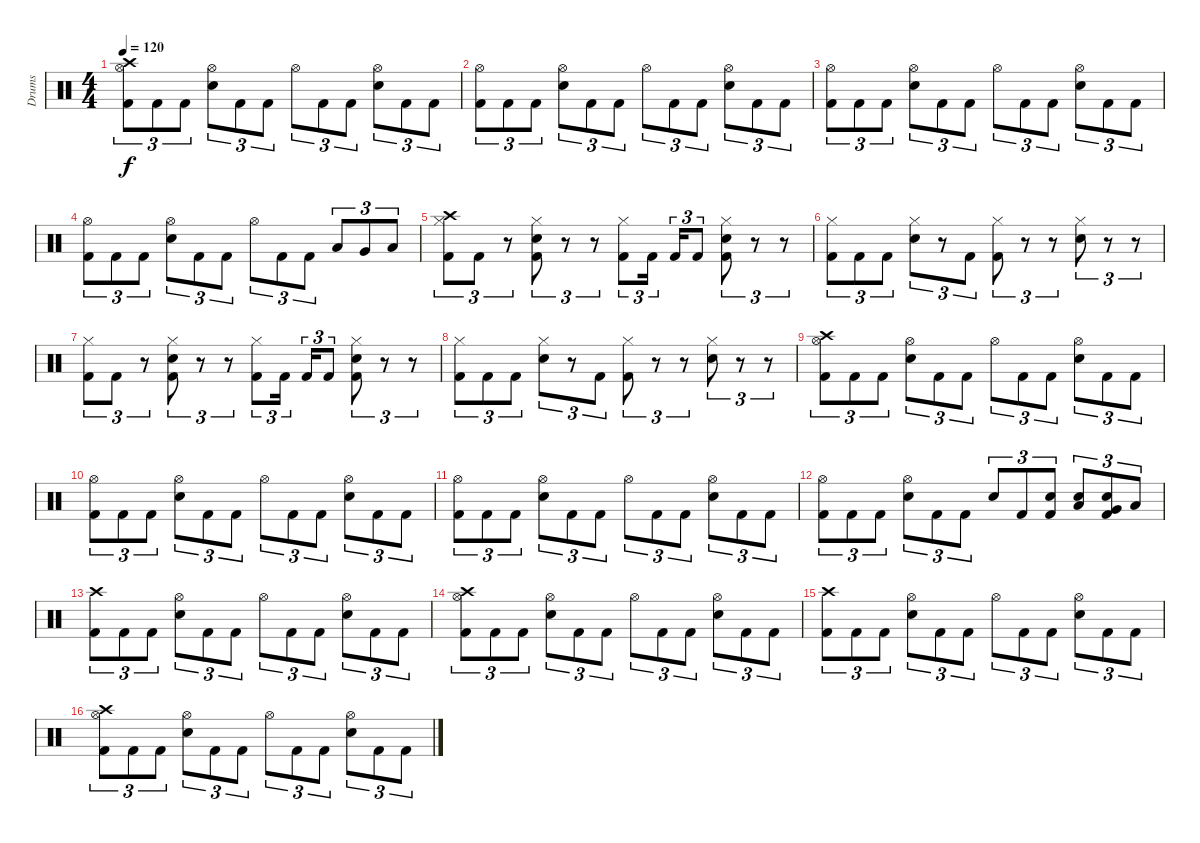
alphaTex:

\track ("Drums" "Drums") {instrument percussion}
\staff {score}
\articulation defaults
\ts (4 4)
\tempo 120
\clef neutral
\ks c
("Kick (hit) 2" "Hi-Hat (open)" "Crash high (hit)").8{tu (3 2) dy f} "Kick (hit) 2".8{tu (3 2)} "Kick (hit) 2".8{tu (3 2)} ("Snare (hit) 2" "Hi-Hat (open)").8{tu (3 2)} "Kick (hit) 2".8{tu (3 2)} "Kick (hit) 2".8{tu (3 2)} "Hi-Hat (open)".8{tu (3 2)} "Kick (hit) 2".8{tu (3 2)} "Kick (hit) 2".8{tu (3 2)} ("Snare (hit) 2" "Hi-Hat (open)").8{tu (3 2)} "Kick (hit) 2".8{tu (3 2)} "Kick (hit) 2".8{tu (3 2)} |
("Kick (hit) 2" "Hi-Hat (open)").8{tu (3 2)} "Kick (hit) 2".8{tu (3 2)} "Kick (hit) 2".8{tu (3 2)} ("Snare (hit) 2" "Hi-Hat (open)").8{tu (3 2)} "Kick (hit) 2".8{tu (3 2)} "Kick (hit) 2".8{tu (3 2)} "Hi-Hat (open)".8{tu (3 2)} "Kick (hit) 2".8{tu (3 2)} "Kick (hit) 2".8{tu (3 2)} ("Snare (hit) 2" "Hi-Hat (open)").8{tu (3 2)} "Kick (hit) 2".8{tu (3 2)} "Kick (hit) 2".8{tu (3 2)} |
("Kick (hit) 2" "Hi-Hat (open)").8{tu (3 2)} "Kick (hit) 2".8{tu (3 2)} "Kick (hit) 2".8{tu (3 2)} ("Snare (hit) 2" "Hi-Hat (open)").8{tu (3 2)} "Kick (hit) 2".8{tu (3 2)} "Kick (hit) 2".8{tu (3 2)} "Hi-Hat (open)".8{tu (3 2)} "Kick (hit) 2".8{tu (3 2)} "Kick (hit) 2".8{tu (3 2)} ("Snare (hit) 2" "Hi-Hat (open)").8{tu (3 2)} "Kick (hit) 2".8{tu (3 2)} "Kick (hit) 2".8{tu (3 2)} |
("Kick (hit) 2" "Hi-Hat (open)").8{tu (3 2)} "Kick (hit) 2".8{tu (3 2)} "Kick (hit) 2".8{tu (3 2)} ("Snare (hit) 2" "Hi-Hat (open)").8{tu (3 2)} "Kick (hit) 2".8{tu (3 2)} "Kick (hit) 2".8{tu (3 2)} "Hi-Hat (open)".8{tu (3 2)} "Kick (hit) 2".8{tu (3 2)} "Kick (hit) 2".8{tu (3 2)} "Low Tom (hit)".8{tu (3 2)} "Very Low Tom (hit)".8{tu (3 2)} "Low Floor Tom (hit)".8{tu (3 2)} |
("Kick (hit) 2" "Hi-Hat (closed)" "Crash high (hit)").8{tu (3 2)} "Kick (hit) 2".8{tu (3 2)} r.8{tu (3 2)} ("Kick (hit) 2" "Snare (hit) 2" "Hi-Hat (closed)").8{tu (3 2)} r.8{tu (3 2)} r.8{tu (3 2)} ("Kick (hit) 2" "Hi-Hat (closed)").8{tu (3 2)} "Kick (hit) 2".16{tu (3 2) beam splitsecondary} "Kick (hit) 2".16{tu (3 2)} "Kick (hit) 2".8{tu (3 2)} ("Kick (hit) 2" "Snare (hit) 2" "Hi-Hat (closed)").8{tu (3 2)} r.8{tu (3 2)} r.8{tu (3 2)} |
("Kick (hit) 2" "Hi-Hat (closed)").8{tu (3 2)} "Kick (hit) 2".8{tu (3 2)} "Kick (hit) 2".8{tu (3 2)} ("Snare (hit) 2" "Hi-Hat (closed)").8{tu (3 2)} r.8{tu (3 2)} "Kick (hit) 2".8{tu (3 2)} ("Kick (hit) 2" "Hi-Hat (closed)").8{tu (3 2)} r.8{tu (3 2)} r.8{tu (3 2)} ("Snare (hit) 2" "Hi-Hat (closed)").8{tu (3 2)} r.8{tu (3 2)} r.8{tu (3 2)} |
("Kick (hit) 2" "Hi-Hat (closed)").8{tu (3 2)} "Kick (hit) 2".8{tu (3 2)} r.8{tu (3 2)} ("Kick (hit) 2" "Snare (hit) 2" "Hi-Hat (closed)").8{tu (3 2)} r.8{tu (3 2)} r.8{tu (3 2)} ("Kick (hit) 2" "Hi-Hat (closed)").8{tu (3 2)} "Kick (hit) 2".16{tu (3 2) beam splitsecondary} "Kick (hit) 2".16{tu (3 2)} "Kick (hit) 2".8{tu (3 2)} ("Kick (hit) 2" "Snare (hit) 2" "Hi-Hat (closed)").8{tu (3 2)} r.8{tu (3 2)} r.8{tu (3 2)} |
("Kick (hit) 2" "Hi-Hat (closed)").8{tu (3 2)} "Kick (hit) 2".8{tu (3 2)} "Kick (hit) 2".8{tu (3 2)} ("Snare (hit) 2" "Hi-Hat (closed)").8{tu (3 2)} r.8{tu (3 2)} "Kick (hit) 2".8{tu (3 2)} ("Kick (hit) 2" "Hi-Hat (closed)").8{tu (3 2)} r.8{tu (3 2)} r.8{tu (3 2)} ("Snare (hit) 2" "Hi-Hat (closed)").8{tu (3 2)} r.8{tu (3 2)} r.8{tu (3 2)} |
("Kick (hit) 2" "Hi-Hat (open)" "Crash high (hit)").8{tu (3 2)} "Kick (hit) 2".8{tu (3 2)} "Kick (hit) 2".8{tu (3 2)} ("Snare (hit) 2" "Hi-Hat (open)").8{tu (3 2)} "Kick (hit) 2".8{tu (3 2)} "Kick (hit) 2".8{tu (3 2)} "Hi-Hat (open)".8{tu (3 2)} "Kick (hit) 2".8{tu (3 2)} "Kick (hit) 2".8{tu (3 2)} ("Snare (hit) 2" "Hi-Hat (open)").8{tu (3 2)} "Kick (hit) 2".8{tu (3 2)} "Kick (hit) 2".8{tu (3 2)} |
("Kick (hit) 2" "Hi-Hat (open)").8{tu (3 2)} "Kick (hit) 2".8{tu (3 2)} "Kick (hit) 2".8{tu (3 2)} ("Snare (hit) 2" "Hi-Hat (open)").8{tu (3 2)} "Kick (hit) 2".8{tu (3 2)} "Kick (hit) 2".8{tu (3 2)} "Hi-Hat (open)".8{tu (3 2)} "Kick (hit) 2".8{tu (3 2)} "Kick (hit) 2".8{tu (3 2)} ("Snare (hit) 2" "Hi-Hat (open)").8{tu (3 2)} "Kick (hit) 2".8{tu (3 2)} "Kick (hit) 2".8{tu (3 2)} |
("Kick (hit) 2" "Hi-Hat (open)").8{tu (3 2)} "Kick (hit) 2".8{tu (3 2)} "Kick (hit) 2".8{tu (3 2)} ("Snare (hit) 2" "Hi-Hat (open)").8{tu (3 2)} "Kick (hit) 2".8{tu (3 2)} "Kick (hit) 2".8{tu (3 2)} "Hi-Hat (open)".8{tu (3 2)} "Kick (hit) 2".8{tu (3 2)} "Kick (hit) 2".8{tu (3 2)} ("Snare (hit) 2" "Hi-Hat (open)").8{tu (3 2)} "Kick (hit) 2".8{tu (3 2)} "Kick (hit) 2".8{tu (3 2)} |
("Kick (hit) 2" "Hi-Hat (open)").8{tu (3 2)} "Kick (hit) 2".8{tu (3 2)} "Kick (hit) 2".8{tu (3 2)} ("Snare (hit) 2" "Hi-Hat (open)").8{tu (3 2)} "Kick (hit) 2".8{tu (3 2)} "Kick (hit) 2".8{tu (3 2)} "Snare (hit) 2".8{tu (3 2)} "Kick (hit) 2".8{tu (3 2)} ("Kick (hit) 2" "Snare (hit) 2").8{tu (3 2)} ("Snare (hit) 2" "Low Tom (hit)").8{tu (3 2)} ("Kick (hit) 2" "Snare (hit) 2" "Very Low Tom (hit)").8{tu (3 2)} "Low Floor Tom (hit)".8{tu (3 2)} |
("Kick (hit) 2" "Crash high (hit)").8{tu (3 2)} "Kick (hit) 2".8{tu (3 2)} "Kick (hit) 2".8{tu (3 2)} ("Snare (hit) 2" "Hi-Hat (open)").8{tu (3 2)} "Kick (hit) 2".8{tu (3 2)} "Kick (hit) 2".8{tu (3 2)} "Hi-Hat (open)".8{tu (3 2)} "Kick (hit) 2".8{tu (3 2)} "Kick (hit) 2".8{tu (3 2)} ("Snare (hit) 2" "Hi-Hat (open)").8{tu (3 2)} "Kick (hit) 2".8{tu (3 2)} "Kick (hit) 2".8{tu (3 2)} |
("Kick (hit) 2" "Hi-Hat (open)" "Crash high (hit)").8{tu (3 2)} "Kick (hit) 2".8{tu (3 2)} "Kick (hit) 2".8{tu (3 2)} ("Snare (hit) 2" "Hi-Hat (open)").8{tu (3 2)} "Kick (hit) 2".8{tu (3 2)} "Kick (hit) 2".8{tu (3 2)} "Hi-Hat (open)".8{tu (3 2)} "Kick (hit) 2".8{tu (3 2)} "Kick (hit) 2".8{tu (3 2)} ("Snare (hit) 2" "Hi-Hat (open)").8{tu (3 2)} "Kick (hit) 2".8{tu (3 2)} "Kick (hit) 2".8{tu (3 2)} |
("Kick (hit) 2" "Crash high (hit)").8{tu (3 2)} "Kick (hit) 2".8{tu (3 2)} "Kick (hit) 2".8{tu (3 2)} ("Snare (hit) 2" "Hi-Hat (open)").8{tu (3 2)} "Kick (hit) 2".8{tu (3 2)} "Kick (hit) 2".8{tu (3 2)} "Hi-Hat (open)".8{tu (3 2)} "Kick (hit) 2".8{tu (3 2)} "Kick (hit) 2".8{tu (3 2)} ("Snare (hit) 2" "Hi-Hat (open)").8{tu (3 2)} "Kick (hit) 2".8{tu (3 2)} "Kick (hit) 2".8{tu (3 2)} |
("Kick (hit) 2" "Hi-Hat (open)" "Crash high (hit)").8{tu (3 2)} "Kick (hit) 2".8{tu (3 2)} "Kick (hit) 2".8{tu (3 2)} ("Snare (hit) 2" "Hi-Hat (open)").8{tu (3 2)} "Kick (hit) 2".8{tu (3 2)} "Kick (hit) 2".8{tu (3 2)} "Hi-Hat (open)".8{tu (3 2)} "Kick (hit) 2".8{tu (3 2)} "Kick (hit) 2".8{tu (3 2)} ("Snare (hit) 2" "Hi-Hat (open)").8{tu (3 2)} "Kick (hit) 2".8{tu (3 2)} "Kick (hit) 2".8{tu (3 2)}
